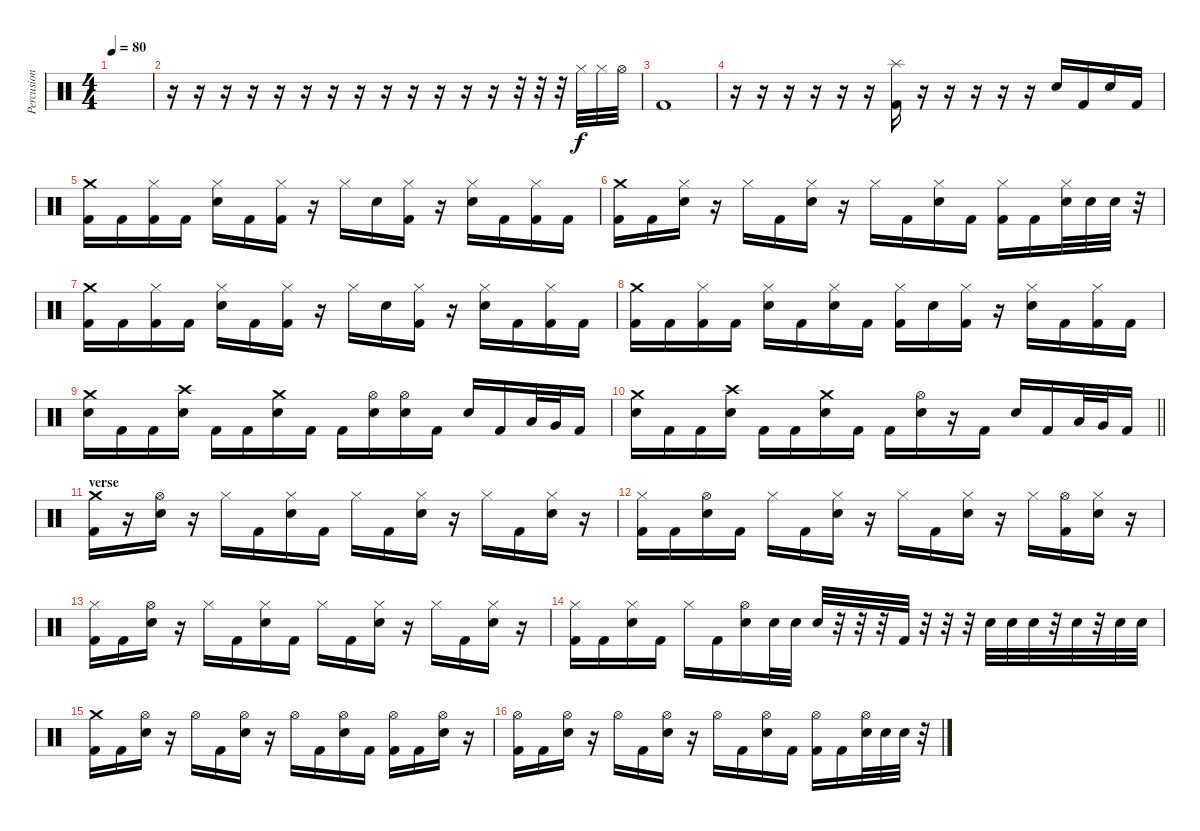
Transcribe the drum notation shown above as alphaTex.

\track ("Percusion" "Percusion") {instrument percussion}
\staff {score}
\articulation defaults
\ts (4 4)
\tempo 80
\clef neutral
\ks c
|
r.16 r.16 r.16 r.16 r.16 r.16 r.16 r.16 r.16 r.16 r.16 r.16 r.16 r.32 r.32 r.32 "Hi-Hat (closed)".32 "Hi-Hat (closed)".32 "Hi-Hat (open)".32 |
"Kick (hit) 2".1 |
r.16 r.16 r.16 r.16 r.16 r.16 ("Splash (hit)" "Kick (hit) 2").16 r.16 r.16 r.16 r.16 r.16 "Electric Snare (hit)".16 "Kick (hit) 2".16 "Electric Snare (hit)".16 "Kick (hit) 2".16 |
("Crash medium (hit)" "Kick (hit) 2").16 "Kick (hit) 2".16 ("Hi-Hat (closed)" "Kick (hit) 2").16 "Kick (hit) 2".16 ("Hi-Hat (closed)" "Electric Snare (hit)").16 "Kick (hit) 2".16 ("Hi-Hat (closed)" "Kick (hit) 2").16 r.16 "Hi-Hat (closed)".16 "Electric Snare (hit)".16 ("Hi-Hat (closed)" "Kick (hit) 2").16 r.16 ("Hi-Hat (closed)" "Electric Snare (hit)").16 "Kick (hit) 2".16 ("Hi-Hat (closed)" "Kick (hit) 2").16 "Kick (hit) 2".16 |
("Crash medium (hit)" "Kick (hit) 2").16 "Kick (hit) 2".16 ("Hi-Hat (closed)" "Electric Snare (hit)").16 r.16 "Hi-Hat (closed)".16 "Kick (hit) 2".16 ("Hi-Hat (closed)" "Electric Snare (hit)").16 r.16 "Hi-Hat (closed)".16 "Kick (hit) 2".16 ("Hi-Hat (closed)" "Electric Snare (hit)").16 "Kick (hit) 2".16 ("Hi-Hat (closed)" "Kick (hit) 2").16 "Kick (hit) 2".16 ("Hi-Hat (closed)" "Electric Snare (hit)").32 "Electric Snare (hit)".32 "Electric Snare (hit)".32 r.32 |
("Crash medium (hit)" "Kick (hit) 2").16 "Kick (hit) 2".16 ("Hi-Hat (closed)" "Kick (hit) 2").16 "Kick (hit) 2".16 ("Hi-Hat (closed)" "Electric Snare (hit)").16 "Kick (hit) 2".16 ("Hi-Hat (closed)" "Kick (hit) 2").16 r.16 "Hi-Hat (closed)".16 "Electric Snare (hit)".16 ("Hi-Hat (closed)" "Kick (hit) 2").16 r.16 ("Hi-Hat (closed)" "Electric Snare (hit)").16 "Kick (hit) 2".16 ("Hi-Hat (closed)" "Kick (hit) 2").16 "Kick (hit) 2".16 |
("Crash medium (hit)" "Kick (hit) 2").16 "Kick (hit) 2".16 ("Hi-Hat (closed)" "Kick (hit) 2").16 "Kick (hit) 2".16 ("Hi-Hat (closed)" "Electric Snare (hit)").16 "Kick (hit) 2".16 ("Hi-Hat (closed)" "Electric Snare (hit)").16 "Kick (hit) 2".16 ("Hi-Hat (closed)" "Kick (hit) 2").16 "Electric Snare (hit)".16 ("Hi-Hat (closed)" "Kick (hit) 2").16 r.16 ("Hi-Hat (closed)" "Electric Snare (hit)").16 "Kick (hit) 2".16 ("Hi-Hat (closed)" "Kick (hit) 2").16 "Kick (hit) 2".16 |
("Crash medium (hit)" "Electric Snare (hit)").16 "Kick (hit) 2".16 "Kick (hit) 2".16 ("Crash high (hit)" "Electric Snare (hit)").16 "Kick (hit) 2".16 "Kick (hit) 2".16 ("Crash medium (hit)" "Electric Snare (hit)").16 "Kick (hit) 2".16 "Kick (hit) 2".16 ("Hi-Hat (open)" "Electric Snare (hit)").16 ("Hi-Hat (open)" "Electric Snare (hit)").16 "Kick (hit) 2".16 "Electric Snare (hit)".16 "Kick (hit) 2".16 "Low Floor Tom (hit)".32 "Very Low Tom (hit)".32 "Kick (hit) 2".16 |
\barLineRight lightlight
("Crash medium (hit)" "Electric Snare (hit)").16 "Kick (hit) 2".16 "Kick (hit) 2".16 ("Crash high (hit)" "Electric Snare (hit)").16 "Kick (hit) 2".16 "Kick (hit) 2".16 ("Crash medium (hit)" "Electric Snare (hit)").16 "Kick (hit) 2".16 "Kick (hit) 2".16 ("Hi-Hat (open)" "Electric Snare (hit)").16 r.16 "Kick (hit) 2".16 "Electric Snare (hit)".16 "Kick (hit) 2".16 "Low Floor Tom (hit)".32 "Very Low Tom (hit)".32 "Kick (hit) 2".16 |
\section ("" "verse")
("Crash medium (hit)" "Kick (hit) 2").16 r.16 ("Hi-Hat (open)" "Electric Snare (hit)").16 r.16 "Hi-Hat (closed)".16 "Kick (hit) 2".16 ("Hi-Hat (closed)" "Electric Snare (hit)").16 "Kick (hit) 2".16 "Hi-Hat (closed)".16 "Kick (hit) 2".16 ("Hi-Hat (closed)" "Electric Snare (hit)").16 r.16 "Hi-Hat (closed)".16 "Kick (hit) 2".16 ("Hi-Hat (closed)" "Electric Snare (hit)").16 r.16 |
("Hi-Hat (closed)" "Kick (hit) 2").16 "Kick (hit) 2".16 ("Hi-Hat (open)" "Electric Snare (hit)").16 "Kick (hit) 2".16 "Hi-Hat (closed)".16 "Kick (hit) 2".16 ("Hi-Hat (closed)" "Electric Snare (hit)").16 r.16 "Hi-Hat (closed)".16 "Kick (hit) 2".16 ("Hi-Hat (closed)" "Electric Snare (hit)").16 r.16 "Hi-Hat (closed)".16 ("Hi-Hat (open)" "Kick (hit) 2").16 ("Hi-Hat (closed)" "Electric Snare (hit)").16 r.16 |
("Hi-Hat (closed)" "Kick (hit) 2").16 "Kick (hit) 2".16 ("Hi-Hat (open)" "Electric Snare (hit)").16 r.16 "Hi-Hat (closed)".16 "Kick (hit) 2".16 ("Hi-Hat (closed)" "Electric Snare (hit)").16 "Kick (hit) 2".16 "Hi-Hat (closed)".16 "Kick (hit) 2".16 ("Hi-Hat (closed)" "Electric Snare (hit)").16 r.16 "Hi-Hat (closed)".16 "Kick (hit) 2".16 ("Hi-Hat (closed)" "Electric Snare (hit)").16 r.16 |
("Hi-Hat (closed)" "Kick (hit) 2").16 "Kick (hit) 2".16 ("Hi-Hat (closed)" "Electric Snare (hit)").16 "Kick (hit) 2".16 "Hi-Hat (closed)".16 "Kick (hit) 2".16 ("Hi-Hat (open)" "Electric Snare (hit)").16 "Electric Snare (hit)".32 "Electric Snare (hit)".32 "Electric Snare (hit)".32 r.32 r.32 r.32 "Kick (hit) 2".32 r.32 r.32 r.32 "Electric Snare (hit)".32 "Electric Snare (hit)".32 "Electric Snare (hit)".32 r.32 "Electric Snare (hit)".32 r.32 "Electric Snare (hit)".32 "Electric Snare (hit)".32 |
("Crash medium (hit)" "Kick (hit) 2").16 "Kick (hit) 2".16 ("Hi-Hat (open)" "Electric Snare (hit)").16 r.16 "Hi-Hat (open)".16 "Kick (hit) 2".16 ("Hi-Hat (open)" "Electric Snare (hit)").16 r.16 "Hi-Hat (open)".16 "Kick (hit) 2".16 ("Hi-Hat (open)" "Electric Snare (hit)").16 "Kick (hit) 2".16 ("Hi-Hat (open)" "Kick (hit) 2").16 "Kick (hit) 2".16 ("Hi-Hat (open)" "Electric Snare (hit)").16 r.16 |
("Hi-Hat (open)" "Kick (hit) 2").16 "Kick (hit) 2".16 ("Hi-Hat (open)" "Electric Snare (hit)").16 r.16 "Hi-Hat (open)".16 "Kick (hit) 2".16 ("Hi-Hat (open)" "Electric Snare (hit)").16 r.16 "Hi-Hat (open)".16 "Kick (hit) 2".16 ("Hi-Hat (open)" "Electric Snare (hit)").16 "Kick (hit) 2".16 ("Hi-Hat (open)" "Kick (hit) 2").16 "Kick (hit) 2".16 ("Hi-Hat (open)" "Electric Snare (hit)").32 "Electric Snare (hit)".32 "Electric Snare (hit)".32 r.32
